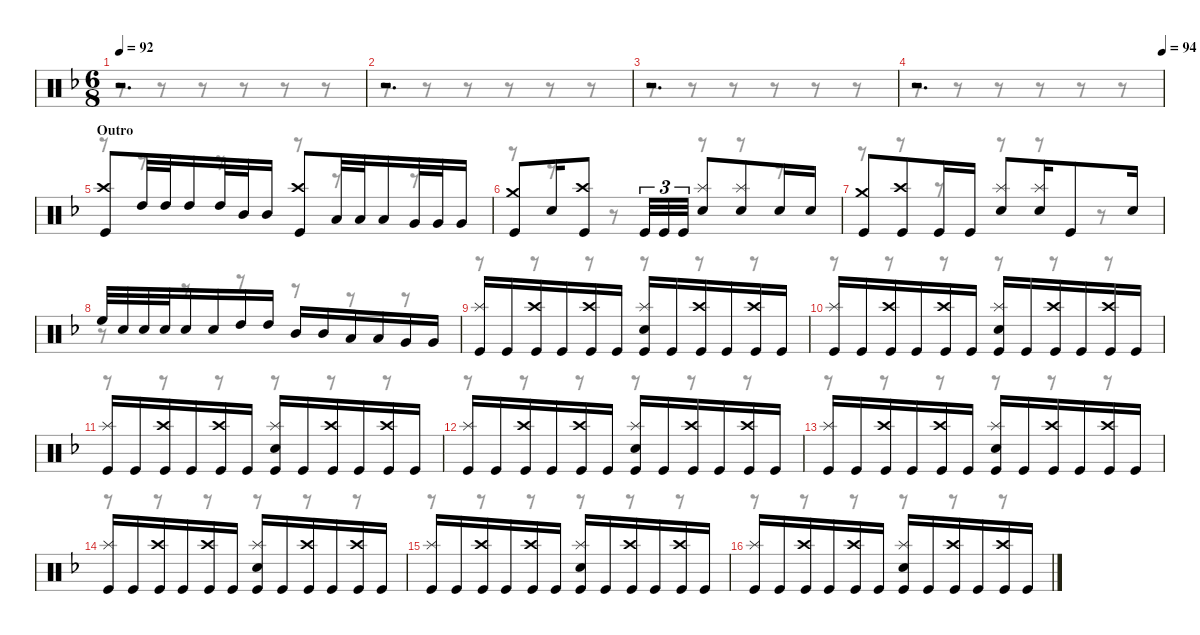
\defaultSystemsLayout 4
\hideDynamics
\bracketExtendMode nobrackets
\singleTrackTrackNamePolicy hidden
\multiTrackTrackNamePolicy hidden
\otherSystemsTrackNameOrientation horizontal
\track ("M. Lopez" "drm.") {instrument percussion}
\staff {score}
\articulation defaults
\voice
\ts (6 8)
\tempo 92
\clef neutral
\ks dminor
r.2{d dy mf beam Up} |
r.2{d beam Up} |
r.2{d beam Up} |
\tempo (94 1)
r.2{d beam Up} |
\section ("" "Outro")
("Crash high (hit)"{acc forcenatural} "Kick (hit)"{acc forcenatural}).8{dy f beam Up} "High Tom (hit)"{acc forcenatural}.32{beam Up} "High Tom (hit)"{acc forcenatural}.32{beam Up} "High Tom (hit)"{acc forcenatural}.16{beam Up} "High Tom (hit)"{acc forcenatural}.32{beam Up} "Mid Tom (hit)"{acc forcenatural}.32{beam Up} "Mid Tom (hit)"{acc forcenatural}.16{beam Up} ("Crash high (hit)"{acc forcenatural} "Kick (hit)"{acc forcenatural}).8{beam Up} "Low Tom (hit)"{acc forcenatural}.32{beam Up} "Low Tom (hit)"{acc forcenatural}.32{beam Up} "Low Tom (hit)"{acc forcenatural}.16{beam Up} "Very Low Tom (hit)"{acc forcenatural}.32{beam Up} "Very Low Tom (hit)"{acc forcenatural}.32{beam Up} "Very Low Tom (hit)"{acc forcenatural}.16{beam Up} |
("Crash medium (hit)"{acc forcenatural} "Kick (hit)"{acc forcenatural}).8{beam Up} "Snare (hit) 2"{acc forcenatural}.16{beam Up} ("Crash high (hit)"{acc forcenatural} "Kick (hit)"{acc forcenatural}).8{beam Up} "Kick (hit)"{acc forcenatural}.32{tu (3 2) beam Up} "Kick (hit)"{acc forcenatural}.32{tu (3 2) beam Up} "Kick (hit)"{acc forcenatural}.32{tu (3 2) beam Up} ("Splash (hit)"{acc forcenatural} "Snare (hit) 2"{acc forcenatural}).8{beam Up} ("Splash (hit)"{acc forcenatural} "Snare (hit) 2"{acc forcenatural}).8{beam Up} "Snare (hit) 2"{acc forcenatural}.16{beam Up} "Snare (hit) 2"{acc forcenatural}.16{beam Up} |
("Crash medium (hit)"{acc forcenatural} "Kick (hit)"{acc forcenatural}).8{beam Up} ("Crash high (hit)"{acc forcenatural} "Kick (hit)"{acc forcenatural}).8{beam Up} "Kick (hit)"{acc forcenatural}.16{beam Up} "Kick (hit)"{acc forcenatural}.16{beam Up} ("Splash (hit)"{acc forcenatural} "Snare (hit) 2"{acc forcenatural}).8{beam Up} ("Splash (hit)"{acc forcenatural} "Snare (hit) 2"{acc forcenatural}).16{beam Up} "Kick (hit)"{acc forcenatural}.8{beam Up} "Snare (hit) 2"{acc forcenatural}.16{beam Up} |
"High Floor Tom (hit)"{acc forcenatural}.32{beam Up} "Snare (hit) 2"{acc forcenatural}.32{beam Up} "Snare (hit) 2"{acc forcenatural}.32{beam Up} "Snare (hit) 2"{acc forcenatural}.32{beam Up} "Snare (hit) 2"{acc forcenatural}.16{beam Up} "Snare (hit) 2"{acc forcenatural}.16{beam Up} "High Tom (hit)"{acc forcenatural}.16{beam Up} "High Tom (hit)"{acc forcenatural}.16{beam Up} "Mid Tom (hit)"{acc forcenatural}.16{beam Up} "Mid Tom (hit)"{acc forcenatural}.16{beam Up} "Low Tom (hit)"{acc forcenatural}.16{beam Up} "Low Tom (hit)"{acc forcenatural}.16{beam Up} "Very Low Tom (hit)"{acc forcenatural}.16{beam Up} "Very Low Tom (hit)"{acc forcenatural}.16{beam Up} |
("Splash (hit)"{acc forcenatural} "Kick (hit)"{acc forcenatural}).16{beam Up} "Kick (hit)"{acc forcenatural}.16{beam Up} ("Crash high (hit)"{acc forcenatural} "Kick (hit)"{acc forcenatural}).16{beam Up} "Kick (hit)"{acc forcenatural}.16{beam Up} ("Crash high (hit)"{acc forcenatural} "Kick (hit)"{acc forcenatural}).16{beam Up} "Kick (hit)"{acc forcenatural}.16{beam Up} ("Splash (hit)"{acc forcenatural} "Snare (hit) 2"{acc forcenatural} "Kick (hit)"{acc forcenatural}).16{beam Up} "Kick (hit)"{acc forcenatural}.16{beam Up} ("Crash high (hit)"{acc forcenatural} "Kick (hit)"{acc forcenatural}).16{beam Up} "Kick (hit)"{acc forcenatural}.16{beam Up} ("Crash high (hit)"{acc forcenatural} "Kick (hit)"{acc forcenatural}).16{beam Up} "Kick (hit)"{acc forcenatural}.16{beam Up} |
("Splash (hit)"{acc forcenatural} "Kick (hit)"{acc forcenatural}).16{beam Up} "Kick (hit)"{acc forcenatural}.16{beam Up} ("Crash high (hit)"{acc forcenatural} "Kick (hit)"{acc forcenatural}).16{beam Up} "Kick (hit)"{acc forcenatural}.16{beam Up} ("Crash high (hit)"{acc forcenatural} "Kick (hit)"{acc forcenatural}).16{beam Up} "Kick (hit)"{acc forcenatural}.16{beam Up} ("Splash (hit)"{acc forcenatural} "Snare (hit) 2"{acc forcenatural} "Kick (hit)"{acc forcenatural}).16{beam Up} "Kick (hit)"{acc forcenatural}.16{beam Up} ("Crash high (hit)"{acc forcenatural} "Kick (hit)"{acc forcenatural}).16{beam Up} "Kick (hit)"{acc forcenatural}.16{beam Up} ("Crash high (hit)"{acc forcenatural} "Kick (hit)"{acc forcenatural}).16{beam Up} "Kick (hit)"{acc forcenatural}.16{beam Up} |
("Splash (hit)"{acc forcenatural} "Kick (hit)"{acc forcenatural}).16{beam Up} "Kick (hit)"{acc forcenatural}.16{beam Up} ("Crash high (hit)"{acc forcenatural} "Kick (hit)"{acc forcenatural}).16{beam Up} "Kick (hit)"{acc forcenatural}.16{beam Up} ("Crash high (hit)"{acc forcenatural} "Kick (hit)"{acc forcenatural}).16{beam Up} "Kick (hit)"{acc forcenatural}.16{beam Up} ("Splash (hit)"{acc forcenatural} "Snare (hit) 2"{acc forcenatural} "Kick (hit)"{acc forcenatural}).16{beam Up} "Kick (hit)"{acc forcenatural}.16{beam Up} ("Crash high (hit)"{acc forcenatural} "Kick (hit)"{acc forcenatural}).16{beam Up} "Kick (hit)"{acc forcenatural}.16{beam Up} ("Crash high (hit)"{acc forcenatural} "Kick (hit)"{acc forcenatural}).16{beam Up} "Kick (hit)"{acc forcenatural}.16{beam Up} |
("Splash (hit)"{acc forcenatural} "Kick (hit)"{acc forcenatural}).16{beam Up} "Kick (hit)"{acc forcenatural}.16{beam Up} ("Crash high (hit)"{acc forcenatural} "Kick (hit)"{acc forcenatural}).16{beam Up} "Kick (hit)"{acc forcenatural}.16{beam Up} ("Crash high (hit)"{acc forcenatural} "Kick (hit)"{acc forcenatural}).16{beam Up} "Kick (hit)"{acc forcenatural}.16{beam Up} ("Splash (hit)"{acc forcenatural} "Snare (hit) 2"{acc forcenatural} "Kick (hit)"{acc forcenatural}).16{beam Up} "Kick (hit)"{acc forcenatural}.16{beam Up} ("Crash high (hit)"{acc forcenatural} "Kick (hit)"{acc forcenatural}).16{beam Up} "Kick (hit)"{acc forcenatural}.16{beam Up} ("Crash high (hit)"{acc forcenatural} "Kick (hit)"{acc forcenatural}).16{beam Up} "Kick (hit)"{acc forcenatural}.16{beam Up} |
("Splash (hit)"{acc forcenatural} "Kick (hit)"{acc forcenatural}).16{beam Up} "Kick (hit)"{acc forcenatural}.16{beam Up} ("Crash high (hit)"{acc forcenatural} "Kick (hit)"{acc forcenatural}).16{beam Up} "Kick (hit)"{acc forcenatural}.16{beam Up} ("Crash high (hit)"{acc forcenatural} "Kick (hit)"{acc forcenatural}).16{beam Up} "Kick (hit)"{acc forcenatural}.16{beam Up} ("Splash (hit)"{acc forcenatural} "Snare (hit) 2"{acc forcenatural} "Kick (hit)"{acc forcenatural}).16{beam Up} "Kick (hit)"{acc forcenatural}.16{beam Up} ("Crash high (hit)"{acc forcenatural} "Kick (hit)"{acc forcenatural}).16{beam Up} "Kick (hit)"{acc forcenatural}.16{beam Up} ("Crash high (hit)"{acc forcenatural} "Kick (hit)"{acc forcenatural}).16{beam Up} "Kick (hit)"{acc forcenatural}.16{beam Up} |
("Splash (hit)"{acc forcenatural} "Kick (hit)"{acc forcenatural}).16{beam Up} "Kick (hit)"{acc forcenatural}.16{beam Up} ("Crash high (hit)"{acc forcenatural} "Kick (hit)"{acc forcenatural}).16{beam Up} "Kick (hit)"{acc forcenatural}.16{beam Up} ("Crash high (hit)"{acc forcenatural} "Kick (hit)"{acc forcenatural}).16{beam Up} "Kick (hit)"{acc forcenatural}.16{beam Up} ("Splash (hit)"{acc forcenatural} "Snare (hit) 2"{acc forcenatural} "Kick (hit)"{acc forcenatural}).16{beam Up} "Kick (hit)"{acc forcenatural}.16{beam Up} ("Crash high (hit)"{acc forcenatural} "Kick (hit)"{acc forcenatural}).16{beam Up} "Kick (hit)"{acc forcenatural}.16{beam Up} ("Crash high (hit)"{acc forcenatural} "Kick (hit)"{acc forcenatural}).16{beam Up} "Kick (hit)"{acc forcenatural}.16{beam Up} |
("Splash (hit)"{acc forcenatural} "Kick (hit)"{acc forcenatural}).16{beam Up} "Kick (hit)"{acc forcenatural}.16{beam Up} ("Crash high (hit)"{acc forcenatural} "Kick (hit)"{acc forcenatural}).16{beam Up} "Kick (hit)"{acc forcenatural}.16{beam Up} ("Crash high (hit)"{acc forcenatural} "Kick (hit)"{acc forcenatural}).16{beam Up} "Kick (hit)"{acc forcenatural}.16{beam Up} ("Splash (hit)"{acc forcenatural} "Snare (hit) 2"{acc forcenatural} "Kick (hit)"{acc forcenatural}).16{beam Up} "Kick (hit)"{acc forcenatural}.16{beam Up} ("Crash high (hit)"{acc forcenatural} "Kick (hit)"{acc forcenatural}).16{beam Up} "Kick (hit)"{acc forcenatural}.16{beam Up} ("Crash high (hit)"{acc forcenatural} "Kick (hit)"{acc forcenatural}).16{beam Up} "Kick (hit)"{acc forcenatural}.16{beam Up} |
("Splash (hit)"{acc forcenatural} "Kick (hit)"{acc forcenatural}).16{beam Up} "Kick (hit)"{acc forcenatural}.16{beam Up} ("Crash high (hit)"{acc forcenatural} "Kick (hit)"{acc forcenatural}).16{beam Up} "Kick (hit)"{acc forcenatural}.16{beam Up} ("Crash high (hit)"{acc forcenatural} "Kick (hit)"{acc forcenatural}).16{beam Up} "Kick (hit)"{acc forcenatural}.16{beam Up} ("Splash (hit)"{acc forcenatural} "Snare (hit) 2"{acc forcenatural} "Kick (hit)"{acc forcenatural}).16{beam Up} "Kick (hit)"{acc forcenatural}.16{beam Up} ("Crash high (hit)"{acc forcenatural} "Kick (hit)"{acc forcenatural}).16{beam Up} "Kick (hit)"{acc forcenatural}.16{beam Up} ("Crash high (hit)"{acc forcenatural} "Kick (hit)"{acc forcenatural}).16{beam Up} "Kick (hit)"{acc forcenatural}.16{beam Up}
\voice
\clef neutral
\ottava regular
\simile none
\ks dminor
r.8{dy mf beam Down} r.8{beam Down} r.8{beam Down} r.8{beam Down} r.8{beam Down} r.8{beam Down} |
r.8{beam Down} r.8{beam Down} r.8{beam Down} r.8{beam Down} r.8{beam Down} r.8{beam Down} |
r.8{beam Down} r.8{beam Down} r.8{beam Down} r.8{beam Down} r.8{beam Down} r.8{beam Down} |
r.8{beam Down} r.8{beam Down} r.8{beam Down} r.8{beam Down} r.8{beam Down} r.8{beam Down} |
r.8{beam Down} r.8{beam Down} r.8{beam Down} r.8{beam Down} r.8{beam Down} r.8{beam Down} |
r.8{beam Down} r.8{beam Down} r.8{beam Down} r.8{beam Down} r.8{beam Down} r.8{beam Down} |
r.8{beam Down} r.8{beam Down} r.8{beam Down} r.8{beam Down} r.8{beam Down} r.8{beam Down} |
r.8{beam Down} r.8{beam Down} r.8{beam Down} r.8{beam Down} r.8{beam Down} r.8{beam Down} |
r.8{beam Down} r.8{beam Down} r.8{beam Down} r.8{beam Down} r.8{beam Down} r.8{beam Down} |
r.8{beam Down} r.8{beam Down} r.8{beam Down} r.8{beam Down} r.8{beam Down} r.8{beam Down} |
r.8{beam Down} r.8{beam Down} r.8{beam Down} r.8{beam Down} r.8{beam Down} r.8{beam Down} |
r.8{beam Down} r.8{beam Down} r.8{beam Down} r.8{beam Down} r.8{beam Down} r.8{beam Down} |
r.8{beam Down} r.8{beam Down} r.8{beam Down} r.8{beam Down} r.8{beam Down} r.8{beam Down} |
r.8{beam Down} r.8{beam Down} r.8{beam Down} r.8{beam Down} r.8{beam Down} r.8{beam Down} |
r.8{beam Down} r.8{beam Down} r.8{beam Down} r.8{beam Down} r.8{beam Down} r.8{beam Down} |
r.8{beam Down} r.8{beam Down} r.8{beam Down} r.8{beam Down} r.8{beam Down} r.8{beam Down}
